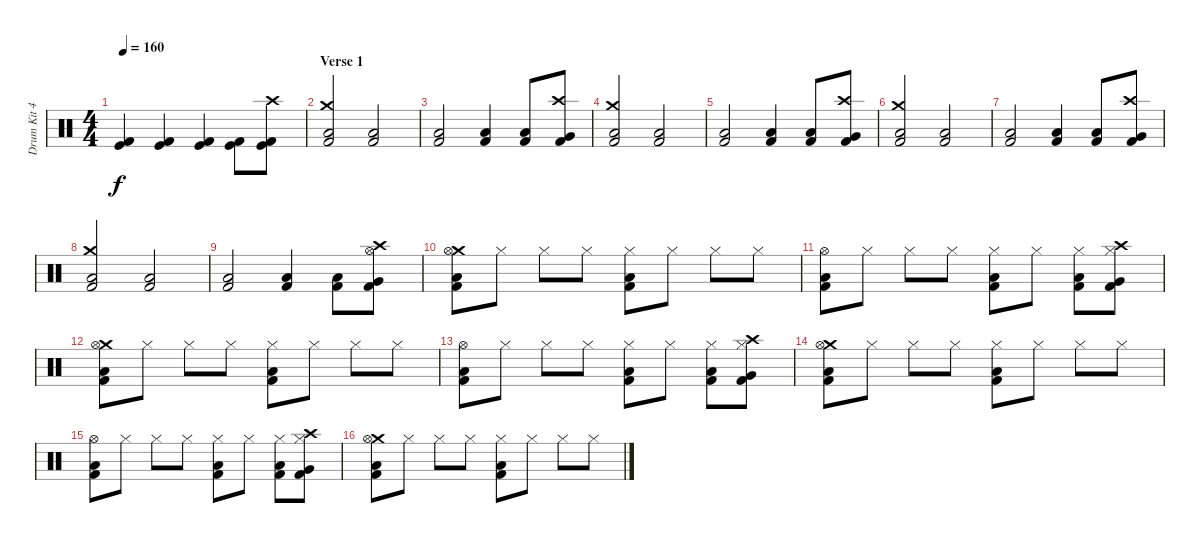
\track ("Drum Kit 42" "Drum Kit 4") {instrument percussion}
\staff {score}
\articulation defaults
\ts (4 4)
\tempo 160
\clef neutral
\ks c
("Kick (hit)" "Kick (hit) 2").4{dy f} ("Kick (hit)" "Kick (hit) 2").4 ("Kick (hit)" "Kick (hit) 2").4 ("Kick (hit)" "Kick (hit) 2").8 ("Crash high (hit)" "Kick (hit)" "Kick (hit) 2").8 |
\section ("" "Verse 1")
("Crash medium (hit)" "Low Tom (hit)" "Kick (hit) 2").2 ("Low Tom (hit)" "Kick (hit) 2").2 |
("Low Tom (hit)" "Kick (hit) 2").2 ("Low Tom (hit)" "Kick (hit) 2").4 ("Low Tom (hit)" "Kick (hit) 2").8 ("Crash high (hit)" "Very Low Tom (hit)" "Kick (hit) 2").8 |
("Crash medium (hit)" "Low Tom (hit)" "Kick (hit) 2").2 ("Low Tom (hit)" "Kick (hit) 2").2 |
("Low Tom (hit)" "Kick (hit) 2").2 ("Low Tom (hit)" "Kick (hit) 2").4 ("Low Tom (hit)" "Kick (hit) 2").8 ("Crash high (hit)" "Very Low Tom (hit)" "Kick (hit) 2").8 |
("Crash medium (hit)" "Low Tom (hit)" "Kick (hit) 2").2 ("Low Tom (hit)" "Kick (hit) 2").2 |
("Low Tom (hit)" "Kick (hit) 2").2 ("Low Tom (hit)" "Kick (hit) 2").4 ("Low Tom (hit)" "Kick (hit) 2").8 ("Crash high (hit)" "Very Low Tom (hit)" "Kick (hit) 2").8 |
("Crash medium (hit)" "Low Tom (hit)" "Kick (hit) 2").2 ("Low Tom (hit)" "Kick (hit) 2").2 |
("Low Tom (hit)" "Kick (hit) 2").2 ("Low Tom (hit)" "Kick (hit) 2").4 ("Low Tom (hit)" "Kick (hit) 2").8 ("Crash high (hit)" "Hi-Hat (open)" "Very Low Tom (hit)" "Kick (hit) 2").8 |
("Crash medium (hit)" "Hi-Hat (open)" "Low Tom (hit)" "Kick (hit) 2").8 "Hi-Hat (closed)".8 "Hi-Hat (closed)".8 "Hi-Hat (closed)".8 ("Hi-Hat (closed)" "Low Tom (hit)" "Kick (hit) 2").8 "Hi-Hat (closed)".8 "Hi-Hat (closed)".8 "Hi-Hat (closed)".8 |
("Hi-Hat (open)" "Low Tom (hit)" "Kick (hit) 2").8 "Hi-Hat (closed)".8 "Hi-Hat (closed)".8 "Hi-Hat (closed)".8 ("Hi-Hat (closed)" "Low Tom (hit)" "Kick (hit) 2").8 "Hi-Hat (closed)".8 ("Hi-Hat (closed)" "Low Tom (hit)" "Kick (hit) 2").8 ("Crash high (hit)" "Hi-Hat (closed)" "Very Low Tom (hit)" "Kick (hit) 2").8 |
("Crash medium (hit)" "Hi-Hat (open)" "Low Tom (hit)" "Kick (hit) 2").8 "Hi-Hat (closed)".8 "Hi-Hat (closed)".8 "Hi-Hat (closed)".8 ("Hi-Hat (closed)" "Low Tom (hit)" "Kick (hit) 2").8 "Hi-Hat (closed)".8 "Hi-Hat (closed)".8 "Hi-Hat (closed)".8 |
("Hi-Hat (open)" "Low Tom (hit)" "Kick (hit) 2").8 "Hi-Hat (closed)".8 "Hi-Hat (closed)".8 "Hi-Hat (closed)".8 ("Hi-Hat (closed)" "Low Tom (hit)" "Kick (hit) 2").8 "Hi-Hat (closed)".8 ("Hi-Hat (closed)" "Low Tom (hit)" "Kick (hit) 2").8 ("Crash high (hit)" "Hi-Hat (closed)" "Very Low Tom (hit)" "Kick (hit) 2").8 |
("Crash medium (hit)" "Hi-Hat (open)" "Low Tom (hit)" "Kick (hit) 2").8 "Hi-Hat (closed)".8 "Hi-Hat (closed)".8 "Hi-Hat (closed)".8 ("Hi-Hat (closed)" "Low Tom (hit)" "Kick (hit) 2").8 "Hi-Hat (closed)".8 "Hi-Hat (closed)".8 "Hi-Hat (closed)".8 |
("Hi-Hat (open)" "Low Tom (hit)" "Kick (hit) 2").8 "Hi-Hat (closed)".8 "Hi-Hat (closed)".8 "Hi-Hat (closed)".8 ("Hi-Hat (closed)" "Low Tom (hit)" "Kick (hit) 2").8 "Hi-Hat (closed)".8 ("Hi-Hat (closed)" "Low Tom (hit)" "Kick (hit) 2").8 ("Crash high (hit)" "Hi-Hat (closed)" "Very Low Tom (hit)" "Kick (hit) 2").8 |
("Crash medium (hit)" "Hi-Hat (open)" "Low Tom (hit)" "Kick (hit) 2").8 "Hi-Hat (closed)".8 "Hi-Hat (closed)".8 "Hi-Hat (closed)".8 ("Hi-Hat (closed)" "Low Tom (hit)" "Kick (hit) 2").8 "Hi-Hat (closed)".8 "Hi-Hat (closed)".8 "Hi-Hat (closed)".8
